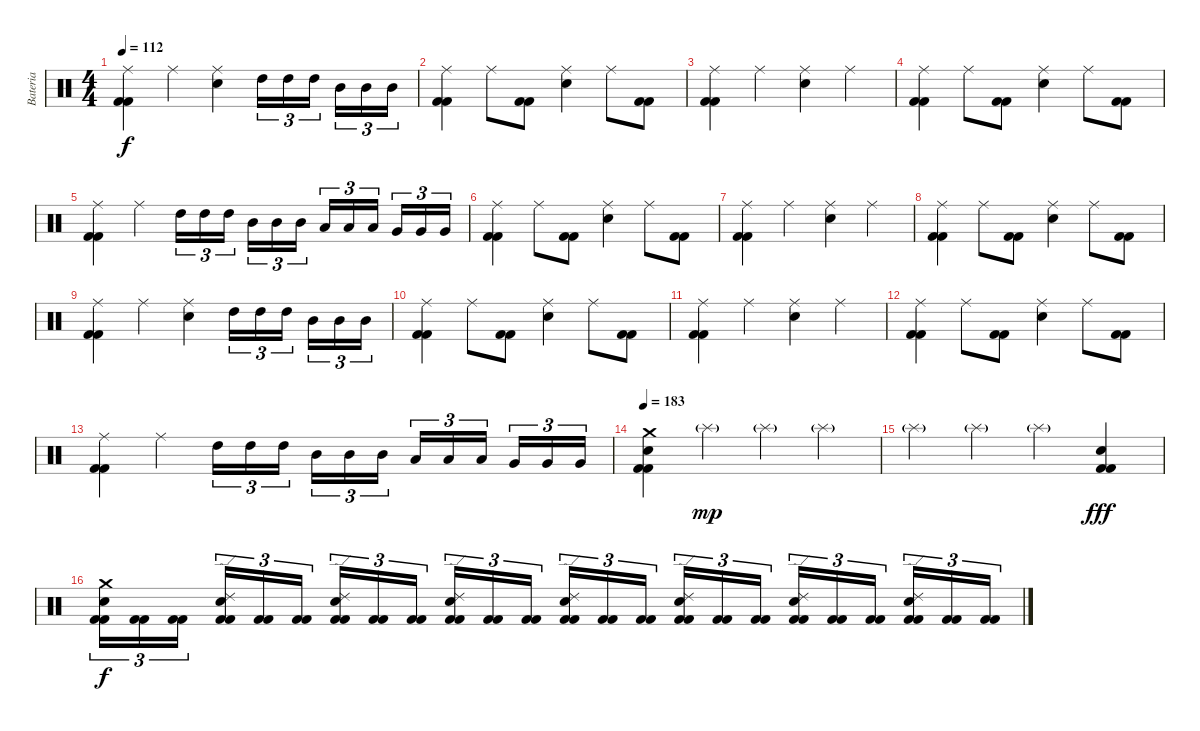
\track ("Bateria" "Bateria") {instrument percussion}
\staff {score}
\articulation defaults
\ts (4 4)
\tempo 112
\clef neutral
\ks c
("Kick (hit) 2" "Kick (hit) 2" "Ride (middle)").4{dy f} "Ride (middle)".4 ("Snare (hit) 2" "Ride (middle)").4 "High Tom (hit)".16{tu (3 2)} "High Tom (hit)".16{tu (3 2)} "High Tom (hit)".16{tu (3 2)} "Mid Tom (hit)".16{tu (3 2)} "Mid Tom (hit)".16{tu (3 2)} "Mid Tom (hit)".16{tu (3 2)} |
("Kick (hit) 2" "Kick (hit) 2" "Ride (middle)").4 "Ride (middle)".8 ("Kick (hit) 2" "Kick (hit) 2").8 ("Snare (hit) 2" "Ride (middle)").4 "Ride (middle)".8 ("Kick (hit) 2" "Kick (hit) 2").8 |
("Kick (hit) 2" "Kick (hit) 2" "Ride (middle)").4 "Ride (middle)".4 ("Snare (hit) 2" "Ride (middle)").4 "Ride (middle)".4 |
("Kick (hit) 2" "Kick (hit) 2" "Ride (middle)").4 "Ride (middle)".8 ("Kick (hit) 2" "Kick (hit) 2").8 ("Snare (hit) 2" "Ride (middle)").4 "Ride (middle)".8 ("Kick (hit) 2" "Kick (hit) 2").8 |
("Kick (hit) 2" "Kick (hit) 2" "Ride (middle)").4 "Ride (middle)".4 "High Tom (hit)".16{tu (3 2)} "High Tom (hit)".16{tu (3 2)} "High Tom (hit)".16{tu (3 2)} "Mid Tom (hit)".16{tu (3 2)} "Mid Tom (hit)".16{tu (3 2)} "Mid Tom (hit)".16{tu (3 2)} "Low Tom (hit)".16{tu (3 2)} "Low Tom (hit)".16{tu (3 2)} "Low Tom (hit)".16{tu (3 2)} "Very Low Tom (hit)".16{tu (3 2)} "Very Low Tom (hit)".16{tu (3 2)} "Very Low Tom (hit)".16{tu (3 2)} |
("Kick (hit) 2" "Kick (hit) 2" "Ride (middle)").4 "Ride (middle)".8 ("Kick (hit) 2" "Kick (hit) 2").8 ("Snare (hit) 2" "Ride (middle)").4 "Ride (middle)".8 ("Kick (hit) 2" "Kick (hit) 2").8 |
("Kick (hit) 2" "Kick (hit) 2" "Ride (middle)").4 "Ride (middle)".4 ("Snare (hit) 2" "Ride (middle)").4 "Ride (middle)".4 |
("Kick (hit) 2" "Kick (hit) 2" "Ride (middle)").4 "Ride (middle)".8 ("Kick (hit) 2" "Kick (hit) 2").8 ("Snare (hit) 2" "Ride (middle)").4 "Ride (middle)".8 ("Kick (hit) 2" "Kick (hit) 2").8 |
("Kick (hit) 2" "Kick (hit) 2" "Ride (middle)").4 "Ride (middle)".4 ("Snare (hit) 2" "Ride (middle)").4 "High Tom (hit)".16{tu (3 2)} "High Tom (hit)".16{tu (3 2)} "High Tom (hit)".16{tu (3 2)} "Mid Tom (hit)".16{tu (3 2)} "Mid Tom (hit)".16{tu (3 2)} "Mid Tom (hit)".16{tu (3 2)} |
("Kick (hit) 2" "Kick (hit) 2" "Ride (middle)").4 "Ride (middle)".8 ("Kick (hit) 2" "Kick (hit) 2").8 ("Snare (hit) 2" "Ride (middle)").4 "Ride (middle)".8 ("Kick (hit) 2" "Kick (hit) 2").8 |
("Kick (hit) 2" "Kick (hit) 2" "Ride (middle)").4 "Ride (middle)".4 ("Snare (hit) 2" "Ride (middle)").4 "Ride (middle)".4 |
("Kick (hit) 2" "Kick (hit) 2" "Ride (middle)").4 "Ride (middle)".8 ("Kick (hit) 2" "Kick (hit) 2").8 ("Snare (hit) 2" "Ride (middle)").4 "Ride (middle)".8 ("Kick (hit) 2" "Kick (hit) 2").8 |
("Kick (hit) 2" "Kick (hit) 2" "Ride (middle)").4 "Ride (middle)".4 "High Tom (hit)".16{tu (3 2)} "High Tom (hit)".16{tu (3 2)} "High Tom (hit)".16{tu (3 2)} "Mid Tom (hit)".16{tu (3 2)} "Mid Tom (hit)".16{tu (3 2)} "Mid Tom (hit)".16{tu (3 2)} "Low Tom (hit)".16{tu (3 2)} "Low Tom (hit)".16{tu (3 2)} "Low Tom (hit)".16{tu (3 2)} "Very Low Tom (hit)".16{tu (3 2)} "Very Low Tom (hit)".16{tu (3 2)} "Very Low Tom (hit)".16{tu (3 2)} |
\tempo 183
("Kick (hit) 2" "Kick (hit) 2" "Snare (hit) 2" "Crash medium (hit)").4 "Splash (hit)"{g}.4{dy mp} "Splash (hit)"{g}.4 "Splash (hit)"{g}.4 |
"Splash (hit)"{g}.4 "Splash (hit)"{g}.4 "Splash (hit)"{g}.4 ("Kick (hit) 2" "Kick (hit) 2" "Snare (hit) 2").4{dy fff} |
("Kick (hit) 2" "Kick (hit) 2" "Snare (hit) 2" "Crash medium (hit)").16{tu (3 2) dy f} ("Kick (hit) 2" "Kick (hit) 2").16{tu (3 2)} ("Kick (hit) 2" "Kick (hit) 2").16{tu (3 2)} ("Kick (hit) 2" "Kick (hit) 2" "Snare (hit) 2" "Ride (edge) 2").16{tu (3 2)} ("Kick (hit) 2" "Kick (hit) 2").16{tu (3 2)} ("Kick (hit) 2" "Kick (hit) 2").16{tu (3 2)} ("Kick (hit) 2" "Kick (hit) 2" "Snare (hit) 2" "Ride (edge) 2").16{tu (3 2)} ("Kick (hit) 2" "Kick (hit) 2").16{tu (3 2)} ("Kick (hit) 2" "Kick (hit) 2").16{tu (3 2)} ("Kick (hit) 2" "Kick (hit) 2" "Snare (hit) 2" "Ride (edge) 2").16{tu (3 2)} ("Kick (hit) 2" "Kick (hit) 2").16{tu (3 2)} ("Kick (hit) 2" "Kick (hit) 2").16{tu (3 2)} ("Kick (hit) 2" "Kick (hit) 2" "Snare (hit) 2" "Ride (edge) 2").16{tu (3 2)} ("Kick (hit) 2" "Kick (hit) 2").16{tu (3 2)} ("Kick (hit) 2" "Kick (hit) 2").16{tu (3 2)} ("Kick (hit) 2" "Kick (hit) 2" "Snare (hit) 2" "Ride (edge) 2").16{tu (3 2)} ("Kick (hit) 2" "Kick (hit) 2").16{tu (3 2)} ("Kick (hit) 2" "Kick (hit) 2").16{tu (3 2)} ("Kick (hit) 2" "Kick (hit) 2" "Snare (hit) 2" "Ride (edge) 2").16{tu (3 2)} ("Kick (hit) 2" "Kick (hit) 2").16{tu (3 2)} ("Kick (hit) 2" "Kick (hit) 2").16{tu (3 2)} ("Kick (hit) 2" "Kick (hit) 2" "Snare (hit) 2" "Ride (edge) 2").16{tu (3 2)} ("Kick (hit) 2" "Kick (hit) 2").16{tu (3 2)} ("Kick (hit) 2" "Kick (hit) 2").16{tu (3 2)}
